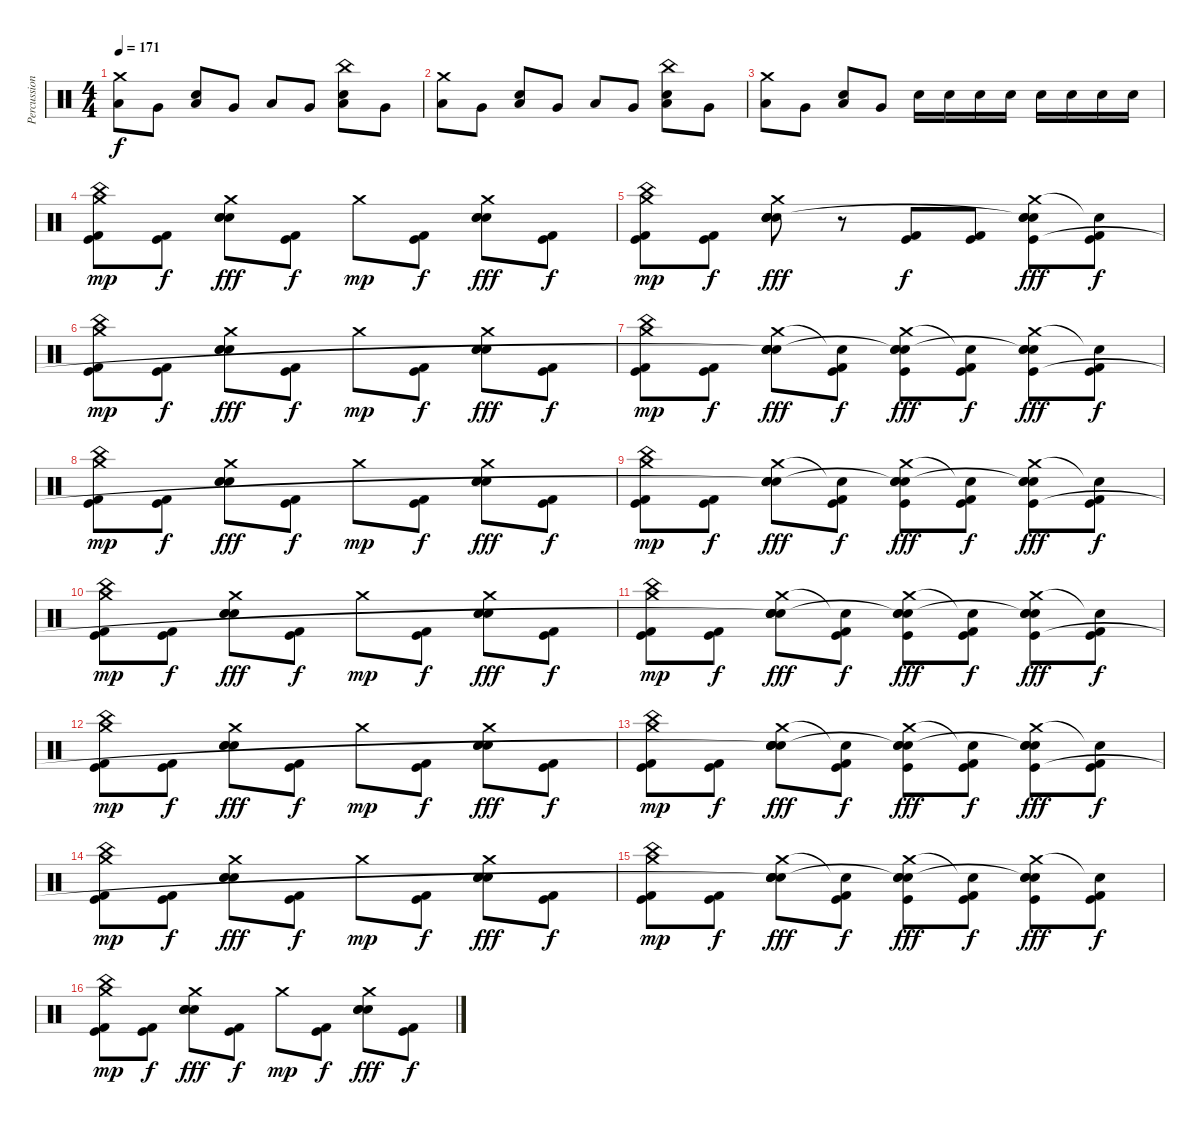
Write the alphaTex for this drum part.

\track ("Percussion" "Percussion") {instrument percussion}
\staff {score}
\articulation defaults
\ts (4 4)
\tempo 171
\clef neutral
\ks c
("Crash medium (hit)" "Low Tom (hit)").8{dy f} "Very Low Tom (hit)".8 ("Electric Snare (hit)" "Low Floor Tom (hit)").8 "Very Low Tom (hit)".8 "Low Tom (hit)".8 "Very Low Tom (hit)".8 ("China (hit)" "Electric Snare (hit)" "Low Floor Tom (hit)").8 "Very Low Tom (hit)".8 |
("Crash medium (hit)" "Low Tom (hit)").8 "Very Low Tom (hit)".8 ("Electric Snare (hit)" "Low Floor Tom (hit)").8 "Very Low Tom (hit)".8 "Low Tom (hit)".8 "Very Low Tom (hit)".8 ("China (hit)" "Electric Snare (hit)" "Low Floor Tom (hit)").8 "Very Low Tom (hit)".8 |
("Crash medium (hit)" "Low Tom (hit)").8 "Very Low Tom (hit)".8 ("Electric Snare (hit)" "Low Floor Tom (hit)").8 "Very Low Tom (hit)".8 "Electric Snare (hit)".16 "Electric Snare (hit)".16 "Electric Snare (hit)".16 "Electric Snare (hit)".16 "Electric Snare (hit)".16 "Electric Snare (hit)".16 "Electric Snare (hit)".16 "Electric Snare (hit)".16 |
("China (hit)" "Crash medium (hit)" "Kick (hit)" "Kick (hit) 2").8{dy mp} ("Kick (hit)" "Kick (hit) 2").8{dy f} ("Crash medium (hit)" "Electric Snare (hit)" "Electric Snare (hit)" "Electric Snare (hit)").8{dy fff} ("Kick (hit)" "Kick (hit) 2").8{dy f} "Crash medium (hit)".8{dy mp} ("Kick (hit)" "Kick (hit) 2").8{dy f} ("Crash medium (hit)" "Electric Snare (hit)" "Electric Snare (hit)" "Electric Snare (hit)").8{dy fff} ("Kick (hit)" "Kick (hit) 2").8{dy f} |
("China (hit)" "Crash medium (hit)" "Kick (hit)" "Kick (hit) 2").8{dy mp} ("Kick (hit)" "Kick (hit) 2").8{dy f} ("Crash medium (hit)" "Electric Snare (hit)" "Electric Snare (hit)" "Electric Snare (hit)" "Snare (hit)").8{dy fff} r.8 ("Kick (hit)" "Kick (hit) 2").8{dy f} ("Kick (hit)" "Kick (hit) 2").8 ("Crash medium (hit)" "Electric Snare (hit)" "Electric Snare (hit)" "Electric Snare (hit)"{t} "Kick (hit)").8{dy fff} ("Snare (hit)"{t} "Kick (hit)" "Kick (hit) 2").8{dy f} |
("China (hit)" "Crash medium (hit)" "Kick (hit)" "Kick (hit) 2").8{dy mp} ("Kick (hit)" "Kick (hit) 2").8{dy f} ("Crash medium (hit)" "Electric Snare (hit)" "Electric Snare (hit)" "Electric Snare (hit)").8{dy fff} ("Kick (hit)" "Kick (hit) 2").8{dy f} "Crash medium (hit)".8{dy mp} ("Kick (hit)" "Kick (hit) 2").8{dy f} ("Crash medium (hit)" "Electric Snare (hit)" "Electric Snare (hit)" "Electric Snare (hit)").8{dy fff} ("Kick (hit)" "Kick (hit) 2").8{dy f} |
("China (hit)" "Crash medium (hit)" "Kick (hit)" "Kick (hit) 2").8{dy mp} ("Kick (hit)" "Kick (hit) 2").8{dy f} ("Crash medium (hit)" "Electric Snare (hit)" "Electric Snare (hit)" "Electric Snare (hit)" "Snare (hit)"{t}).8{dy fff} ("Snare (hit)"{t} "Kick (hit)" "Kick (hit) 2").8{dy f} ("Crash medium (hit)" "Electric Snare (hit)" "Electric Snare (hit)" "Electric Snare (hit)"{t} "Kick (hit)").8{dy fff} ("Snare (hit)"{t} "Kick (hit)" "Kick (hit) 2").8{dy f} ("Crash medium (hit)" "Electric Snare (hit)" "Electric Snare (hit)" "Electric Snare (hit)"{t} "Kick (hit)").8{dy fff} ("Snare (hit)"{t} "Kick (hit)" "Kick (hit) 2").8{dy f} |
("China (hit)" "Crash medium (hit)" "Kick (hit)" "Kick (hit) 2").8{dy mp} ("Kick (hit)" "Kick (hit) 2").8{dy f} ("Crash medium (hit)" "Electric Snare (hit)" "Electric Snare (hit)" "Electric Snare (hit)").8{dy fff} ("Kick (hit)" "Kick (hit) 2").8{dy f} "Crash medium (hit)".8{dy mp} ("Kick (hit)" "Kick (hit) 2").8{dy f} ("Crash medium (hit)" "Electric Snare (hit)" "Electric Snare (hit)" "Electric Snare (hit)").8{dy fff} ("Kick (hit)" "Kick (hit) 2").8{dy f} |
("China (hit)" "Crash medium (hit)" "Kick (hit)" "Kick (hit) 2").8{dy mp} ("Kick (hit)" "Kick (hit) 2").8{dy f} ("Crash medium (hit)" "Electric Snare (hit)" "Electric Snare (hit)" "Electric Snare (hit)" "Snare (hit)"{t}).8{dy fff} ("Snare (hit)"{t} "Kick (hit)" "Kick (hit) 2").8{dy f} ("Crash medium (hit)" "Electric Snare (hit)" "Electric Snare (hit)" "Electric Snare (hit)"{t} "Kick (hit)").8{dy fff} ("Snare (hit)"{t} "Kick (hit)" "Kick (hit) 2").8{dy f} ("Crash medium (hit)" "Electric Snare (hit)" "Electric Snare (hit)" "Electric Snare (hit)"{t} "Kick (hit)").8{dy fff} ("Snare (hit)"{t} "Kick (hit)" "Kick (hit) 2").8{dy f} |
("China (hit)" "Crash medium (hit)" "Kick (hit)" "Kick (hit) 2").8{dy mp} ("Kick (hit)" "Kick (hit) 2").8{dy f} ("Crash medium (hit)" "Electric Snare (hit)" "Electric Snare (hit)" "Electric Snare (hit)").8{dy fff} ("Kick (hit)" "Kick (hit) 2").8{dy f} "Crash medium (hit)".8{dy mp} ("Kick (hit)" "Kick (hit) 2").8{dy f} ("Crash medium (hit)" "Electric Snare (hit)" "Electric Snare (hit)" "Electric Snare (hit)").8{dy fff} ("Kick (hit)" "Kick (hit) 2").8{dy f} |
("China (hit)" "Crash medium (hit)" "Kick (hit)" "Kick (hit) 2").8{dy mp} ("Kick (hit)" "Kick (hit) 2").8{dy f} ("Crash medium (hit)" "Electric Snare (hit)" "Electric Snare (hit)" "Electric Snare (hit)" "Snare (hit)"{t}).8{dy fff} ("Snare (hit)"{t} "Kick (hit)" "Kick (hit) 2").8{dy f} ("Crash medium (hit)" "Electric Snare (hit)" "Electric Snare (hit)" "Electric Snare (hit)"{t} "Kick (hit)").8{dy fff} ("Snare (hit)"{t} "Kick (hit)" "Kick (hit) 2").8{dy f} ("Crash medium (hit)" "Electric Snare (hit)" "Electric Snare (hit)" "Electric Snare (hit)"{t} "Kick (hit)").8{dy fff} ("Snare (hit)"{t} "Kick (hit)" "Kick (hit) 2").8{dy f} |
("China (hit)" "Crash medium (hit)" "Kick (hit)" "Kick (hit) 2").8{dy mp} ("Kick (hit)" "Kick (hit) 2").8{dy f} ("Crash medium (hit)" "Electric Snare (hit)" "Electric Snare (hit)" "Electric Snare (hit)").8{dy fff} ("Kick (hit)" "Kick (hit) 2").8{dy f} "Crash medium (hit)".8{dy mp} ("Kick (hit)" "Kick (hit) 2").8{dy f} ("Crash medium (hit)" "Electric Snare (hit)" "Electric Snare (hit)" "Electric Snare (hit)").8{dy fff} ("Kick (hit)" "Kick (hit) 2").8{dy f} |
("China (hit)" "Crash medium (hit)" "Kick (hit)" "Kick (hit) 2").8{dy mp} ("Kick (hit)" "Kick (hit) 2").8{dy f} ("Crash medium (hit)" "Electric Snare (hit)" "Electric Snare (hit)" "Electric Snare (hit)" "Snare (hit)"{t}).8{dy fff} ("Snare (hit)"{t} "Kick (hit)" "Kick (hit) 2").8{dy f} ("Crash medium (hit)" "Electric Snare (hit)" "Electric Snare (hit)" "Electric Snare (hit)"{t} "Kick (hit)").8{dy fff} ("Snare (hit)"{t} "Kick (hit)" "Kick (hit) 2").8{dy f} ("Crash medium (hit)" "Electric Snare (hit)" "Electric Snare (hit)" "Electric Snare (hit)"{t} "Kick (hit)").8{dy fff} ("Snare (hit)"{t} "Kick (hit)" "Kick (hit) 2").8{dy f} |
("China (hit)" "Crash medium (hit)" "Kick (hit)" "Kick (hit) 2").8{dy mp} ("Kick (hit)" "Kick (hit) 2").8{dy f} ("Crash medium (hit)" "Electric Snare (hit)" "Electric Snare (hit)" "Electric Snare (hit)").8{dy fff} ("Kick (hit)" "Kick (hit) 2").8{dy f} "Crash medium (hit)".8{dy mp} ("Kick (hit)" "Kick (hit) 2").8{dy f} ("Crash medium (hit)" "Electric Snare (hit)" "Electric Snare (hit)" "Electric Snare (hit)").8{dy fff} ("Kick (hit)" "Kick (hit) 2").8{dy f} |
("China (hit)" "Crash medium (hit)" "Kick (hit)" "Kick (hit) 2").8{dy mp} ("Kick (hit)" "Kick (hit) 2").8{dy f} ("Crash medium (hit)" "Electric Snare (hit)" "Electric Snare (hit)" "Electric Snare (hit)" "Snare (hit)"{t}).8{dy fff} ("Snare (hit)"{t} "Kick (hit)" "Kick (hit) 2").8{dy f} ("Crash medium (hit)" "Electric Snare (hit)" "Electric Snare (hit)" "Electric Snare (hit)"{t} "Kick (hit)").8{dy fff} ("Snare (hit)"{t} "Kick (hit)" "Kick (hit) 2").8{dy f} ("Crash medium (hit)" "Electric Snare (hit)" "Electric Snare (hit)" "Electric Snare (hit)"{t} "Kick (hit)").8{dy fff} ("Snare (hit)"{t} "Kick (hit)" "Kick (hit) 2").8{dy f} |
("China (hit)" "Crash medium (hit)" "Kick (hit)" "Kick (hit) 2").8{dy mp} ("Kick (hit)" "Kick (hit) 2").8{dy f} ("Crash medium (hit)" "Electric Snare (hit)" "Electric Snare (hit)" "Electric Snare (hit)").8{dy fff} ("Kick (hit)" "Kick (hit) 2").8{dy f} "Crash medium (hit)".8{dy mp} ("Kick (hit)" "Kick (hit) 2").8{dy f} ("Crash medium (hit)" "Electric Snare (hit)" "Electric Snare (hit)" "Electric Snare (hit)").8{dy fff} ("Kick (hit)" "Kick (hit) 2").8{dy f}
